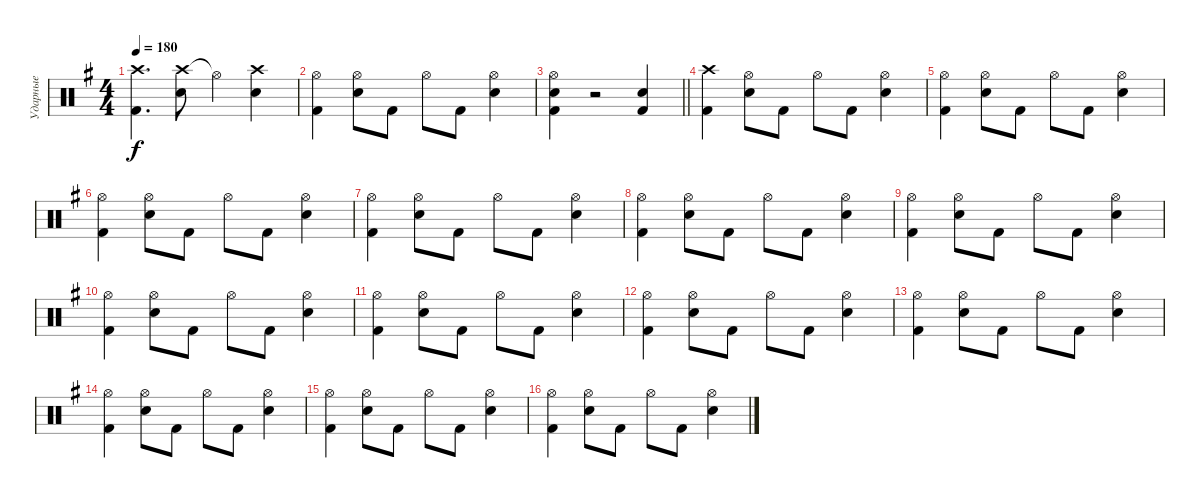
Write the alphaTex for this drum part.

\track ("Ударные" "Ударные") {instrument percussion}
\staff {score}
\articulation defaults
\ts (4 4)
\tempo 180
\clef neutral
\ks g
("Crash high (hit)" "Kick (hit) 2").4{d dy f} ("Crash high (hit)" "Snare (hit) 2").8 "Hi-Hat (open)"{t}.4 ("Crash high (hit)" "Snare (hit) 2").4 |
("Hi-Hat (open)" "Kick (hit) 2").4 ("Hi-Hat (open)" "Snare (hit) 2").8 "Kick (hit) 2".8 "Hi-Hat (open)".8 "Kick (hit) 2".8 ("Hi-Hat (open)" "Snare (hit) 2").4 |
\barLineRight lightlight
("Hi-Hat (open)" "Snare (hit) 2" "Kick (hit) 2").4 r.2 ("Snare (hit) 2" "Kick (hit) 2").4 |
("Crash high (hit)" "Kick (hit) 2").4 ("Hi-Hat (open)" "Snare (hit) 2").8 "Kick (hit) 2".8 "Hi-Hat (open)".8 "Kick (hit) 2".8 ("Hi-Hat (open)" "Snare (hit) 2").4 |
("Hi-Hat (open)" "Kick (hit) 2").4 ("Hi-Hat (open)" "Snare (hit) 2").8 "Kick (hit) 2".8 "Hi-Hat (open)".8 "Kick (hit) 2".8 ("Hi-Hat (open)" "Snare (hit) 2").4 |
("Hi-Hat (open)" "Kick (hit) 2").4 ("Hi-Hat (open)" "Snare (hit) 2").8 "Kick (hit) 2".8 "Hi-Hat (open)".8 "Kick (hit) 2".8 ("Hi-Hat (open)" "Snare (hit) 2").4 |
("Hi-Hat (open)" "Kick (hit) 2").4 ("Hi-Hat (open)" "Snare (hit) 2").8 "Kick (hit) 2".8 "Hi-Hat (open)".8 "Kick (hit) 2".8 ("Hi-Hat (open)" "Snare (hit) 2").4 |
("Hi-Hat (open)" "Kick (hit) 2").4 ("Hi-Hat (open)" "Snare (hit) 2").8 "Kick (hit) 2".8 "Hi-Hat (open)".8 "Kick (hit) 2".8 ("Hi-Hat (open)" "Snare (hit) 2").4 |
("Hi-Hat (open)" "Kick (hit) 2").4 ("Hi-Hat (open)" "Snare (hit) 2").8 "Kick (hit) 2".8 "Hi-Hat (open)".8 "Kick (hit) 2".8 ("Hi-Hat (open)" "Snare (hit) 2").4 |
("Hi-Hat (open)" "Kick (hit) 2").4 ("Hi-Hat (open)" "Snare (hit) 2").8 "Kick (hit) 2".8 "Hi-Hat (open)".8 "Kick (hit) 2".8 ("Hi-Hat (open)" "Snare (hit) 2").4 |
("Hi-Hat (open)" "Kick (hit) 2").4 ("Hi-Hat (open)" "Snare (hit) 2").8 "Kick (hit) 2".8 "Hi-Hat (open)".8 "Kick (hit) 2".8 ("Hi-Hat (open)" "Snare (hit) 2").4 |
("Hi-Hat (open)" "Kick (hit) 2").4 ("Hi-Hat (open)" "Snare (hit) 2").8 "Kick (hit) 2".8 "Hi-Hat (open)".8 "Kick (hit) 2".8 ("Hi-Hat (open)" "Snare (hit) 2").4 |
("Hi-Hat (open)" "Kick (hit) 2").4 ("Hi-Hat (open)" "Snare (hit) 2").8 "Kick (hit) 2".8 "Hi-Hat (open)".8 "Kick (hit) 2".8 ("Hi-Hat (open)" "Snare (hit) 2").4 |
("Hi-Hat (open)" "Kick (hit) 2").4 ("Hi-Hat (open)" "Snare (hit) 2").8 "Kick (hit) 2".8 "Hi-Hat (open)".8 "Kick (hit) 2".8 ("Hi-Hat (open)" "Snare (hit) 2").4 |
("Hi-Hat (open)" "Kick (hit) 2").4 ("Hi-Hat (open)" "Snare (hit) 2").8 "Kick (hit) 2".8 "Hi-Hat (open)".8 "Kick (hit) 2".8 ("Hi-Hat (open)" "Snare (hit) 2").4 |
("Hi-Hat (open)" "Kick (hit) 2").4 ("Hi-Hat (open)" "Snare (hit) 2").8 "Kick (hit) 2".8 "Hi-Hat (open)".8 "Kick (hit) 2".8 ("Hi-Hat (open)" "Snare (hit) 2").4
